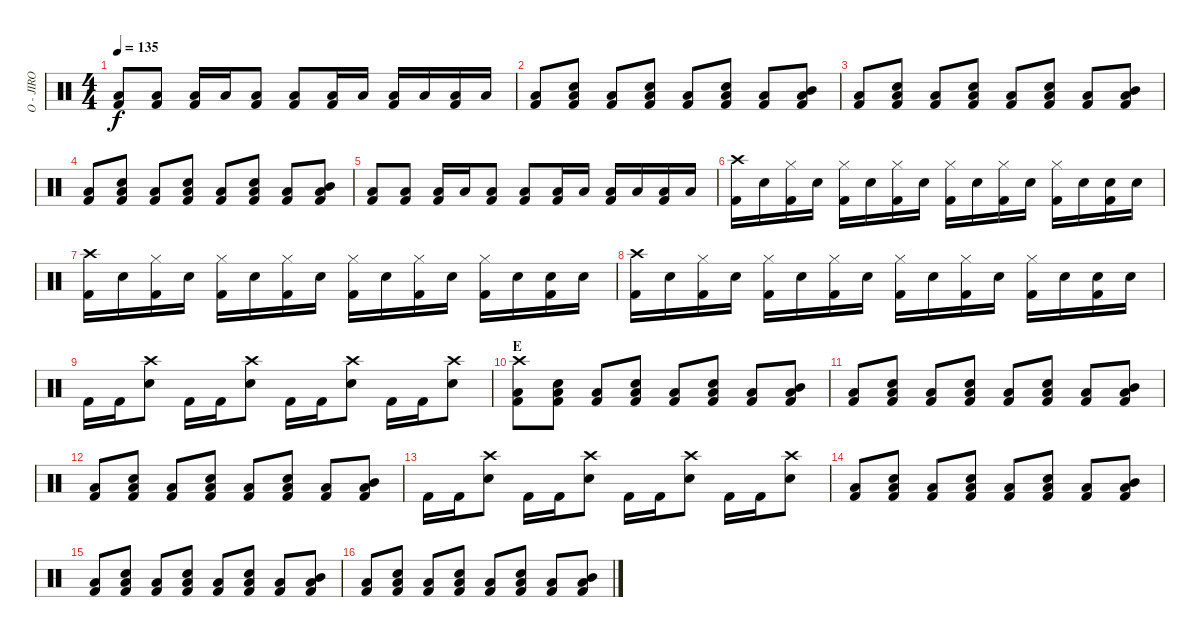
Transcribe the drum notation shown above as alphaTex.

\track ("O - JIRO" "O - JIRO") {instrument percussion}
\staff {score}
\articulation defaults
\ts (4 4)
\tempo 135
\clef neutral
\ks c
("Kick (hit) 2" "Low Floor Tom (hit)").8{dy f} ("Kick (hit) 2" "Low Floor Tom (hit)").8 ("Kick (hit) 2" "Low Floor Tom (hit)").16 "Low Tom (hit)".16 ("Kick (hit) 2" "Low Floor Tom (hit)").8 ("Kick (hit) 2" "Low Floor Tom (hit)").8 ("Kick (hit) 2" "Low Floor Tom (hit)").16 "Low Tom (hit)".16 ("Kick (hit) 2" "Low Floor Tom (hit)").16 "Low Floor Tom (hit)".16 ("Low Tom (hit)" "Kick (hit) 2").16 "Low Tom (hit)".16 |
("Kick (hit) 2" "Low Floor Tom (hit)").8 ("Snare (hit) 2" "Kick (hit) 2" "Low Floor Tom (hit)").8 ("Kick (hit) 2" "Low Floor Tom (hit)").8 ("Snare (hit) 2" "Kick (hit) 2" "Low Floor Tom (hit)").8 ("Kick (hit) 2" "Low Floor Tom (hit)").8 ("Snare (hit) 2" "Kick (hit) 2" "Low Floor Tom (hit)").8 ("Kick (hit) 2" "Low Floor Tom (hit)").8 ("Mid Tom (hit)" "Kick (hit) 2" "Low Floor Tom (hit)").8 |
("Kick (hit) 2" "Low Floor Tom (hit)").8 ("Snare (hit) 2" "Kick (hit) 2" "Low Floor Tom (hit)").8 ("Kick (hit) 2" "Low Floor Tom (hit)").8 ("Snare (hit) 2" "Kick (hit) 2" "Low Floor Tom (hit)").8 ("Kick (hit) 2" "Low Floor Tom (hit)").8 ("Snare (hit) 2" "Kick (hit) 2" "Low Floor Tom (hit)").8 ("Kick (hit) 2" "Low Floor Tom (hit)").8 ("Mid Tom (hit)" "Kick (hit) 2" "Low Floor Tom (hit)").8 |
("Kick (hit) 2" "Low Floor Tom (hit)").8 ("Snare (hit) 2" "Kick (hit) 2" "Low Floor Tom (hit)").8 ("Kick (hit) 2" "Low Floor Tom (hit)").8 ("Snare (hit) 2" "Kick (hit) 2" "Low Floor Tom (hit)").8 ("Kick (hit) 2" "Low Floor Tom (hit)").8 ("Snare (hit) 2" "Kick (hit) 2" "Low Floor Tom (hit)").8 ("Kick (hit) 2" "Low Floor Tom (hit)").8 ("Mid Tom (hit)" "Kick (hit) 2" "Low Floor Tom (hit)").8 |
("Kick (hit) 2" "Low Floor Tom (hit)").8 ("Kick (hit) 2" "Low Floor Tom (hit)").8 ("Kick (hit) 2" "Low Floor Tom (hit)").16 "Low Tom (hit)".16 ("Kick (hit) 2" "Low Floor Tom (hit)").8 ("Kick (hit) 2" "Low Floor Tom (hit)").8 ("Kick (hit) 2" "Low Floor Tom (hit)").16 "Low Tom (hit)".16 ("Kick (hit) 2" "Low Floor Tom (hit)").16 "Low Floor Tom (hit)".16 ("Low Tom (hit)" "Kick (hit) 2").16 "Low Tom (hit)".16 |
("Crash high (hit)" "Kick (hit) 2").16 "Snare (hit) 2".16 ("Hi-Hat (closed)" "Kick (hit) 2").16 "Snare (hit) 2".16 ("Hi-Hat (closed)" "Kick (hit) 2").16 "Snare (hit) 2".16 ("Hi-Hat (closed)" "Kick (hit) 2").16 "Snare (hit) 2".16 ("Hi-Hat (closed)" "Kick (hit) 2").16 "Snare (hit) 2".16 ("Hi-Hat (closed)" "Kick (hit) 2").16 "Snare (hit) 2".16 ("Hi-Hat (closed)" "Kick (hit) 2").16 "Snare (hit) 2".16 ("Snare (hit) 2" "Kick (hit) 2").16 "Snare (hit) 2".16 |
("Crash high (hit)" "Kick (hit) 2").16 "Snare (hit) 2".16 ("Hi-Hat (closed)" "Kick (hit) 2").16 "Snare (hit) 2".16 ("Hi-Hat (closed)" "Kick (hit) 2").16 "Snare (hit) 2".16 ("Hi-Hat (closed)" "Kick (hit) 2").16 "Snare (hit) 2".16 ("Hi-Hat (closed)" "Kick (hit) 2").16 "Snare (hit) 2".16 ("Hi-Hat (closed)" "Kick (hit) 2").16 "Snare (hit) 2".16 ("Hi-Hat (closed)" "Kick (hit) 2").16 "Snare (hit) 2".16 ("Snare (hit) 2" "Kick (hit) 2").16 "Snare (hit) 2".16 |
("Crash high (hit)" "Kick (hit) 2").16 "Snare (hit) 2".16 ("Hi-Hat (closed)" "Kick (hit) 2").16 "Snare (hit) 2".16 ("Hi-Hat (closed)" "Kick (hit) 2").16 "Snare (hit) 2".16 ("Hi-Hat (closed)" "Kick (hit) 2").16 "Snare (hit) 2".16 ("Hi-Hat (closed)" "Kick (hit) 2").16 "Snare (hit) 2".16 ("Hi-Hat (closed)" "Kick (hit) 2").16 "Snare (hit) 2".16 ("Hi-Hat (closed)" "Kick (hit) 2").16 "Snare (hit) 2".16 ("Snare (hit) 2" "Kick (hit) 2").16 "Snare (hit) 2".16 |
"Kick (hit) 2".16 "Kick (hit) 2".16 ("Crash high (hit)" "Snare (hit) 2").8 "Kick (hit) 2".16 "Kick (hit) 2".16 ("Crash high (hit)" "Snare (hit) 2").8 "Kick (hit) 2".16 "Kick (hit) 2".16 ("Crash high (hit)" "Snare (hit) 2").8 "Kick (hit) 2".16 "Kick (hit) 2".16 ("Crash high (hit)" "Snare (hit) 2").8 |
\section ("" "E")
("Crash high (hit)" "Kick (hit) 2" "Low Floor Tom (hit)").8 ("Snare (hit) 2" "Kick (hit) 2" "Low Floor Tom (hit)").8 ("Kick (hit) 2" "Low Floor Tom (hit)").8 ("Snare (hit) 2" "Kick (hit) 2" "Low Floor Tom (hit)").8 ("Kick (hit) 2" "Low Floor Tom (hit)").8 ("Snare (hit) 2" "Kick (hit) 2" "Low Floor Tom (hit)").8 ("Kick (hit) 2" "Low Floor Tom (hit)").8 ("Mid Tom (hit)" "Kick (hit) 2" "Low Floor Tom (hit)").8 |
("Kick (hit) 2" "Low Floor Tom (hit)").8 ("Snare (hit) 2" "Kick (hit) 2" "Low Floor Tom (hit)").8 ("Kick (hit) 2" "Low Floor Tom (hit)").8 ("Snare (hit) 2" "Kick (hit) 2" "Low Floor Tom (hit)").8 ("Kick (hit) 2" "Low Floor Tom (hit)").8 ("Snare (hit) 2" "Kick (hit) 2" "Low Floor Tom (hit)").8 ("Kick (hit) 2" "Low Floor Tom (hit)").8 ("Mid Tom (hit)" "Kick (hit) 2" "Low Floor Tom (hit)").8 |
("Kick (hit) 2" "Low Floor Tom (hit)").8 ("Snare (hit) 2" "Kick (hit) 2" "Low Floor Tom (hit)").8 ("Kick (hit) 2" "Low Floor Tom (hit)").8 ("Snare (hit) 2" "Kick (hit) 2" "Low Floor Tom (hit)").8 ("Kick (hit) 2" "Low Floor Tom (hit)").8 ("Snare (hit) 2" "Kick (hit) 2" "Low Floor Tom (hit)").8 ("Kick (hit) 2" "Low Floor Tom (hit)").8 ("Mid Tom (hit)" "Kick (hit) 2" "Low Floor Tom (hit)").8 |
"Kick (hit) 2".16 "Kick (hit) 2".16 ("Crash high (hit)" "Snare (hit) 2").8 "Kick (hit) 2".16 "Kick (hit) 2".16 ("Crash high (hit)" "Snare (hit) 2").8 "Kick (hit) 2".16 "Kick (hit) 2".16 ("Crash high (hit)" "Snare (hit) 2").8 "Kick (hit) 2".16 "Kick (hit) 2".16 ("Crash high (hit)" "Snare (hit) 2").8 |
("Kick (hit) 2" "Low Floor Tom (hit)").8 ("Snare (hit) 2" "Kick (hit) 2" "Low Floor Tom (hit)").8 ("Kick (hit) 2" "Low Floor Tom (hit)").8 ("Snare (hit) 2" "Kick (hit) 2" "Low Floor Tom (hit)").8 ("Kick (hit) 2" "Low Floor Tom (hit)").8 ("Snare (hit) 2" "Kick (hit) 2" "Low Floor Tom (hit)").8 ("Kick (hit) 2" "Low Floor Tom (hit)").8 ("Mid Tom (hit)" "Kick (hit) 2" "Low Floor Tom (hit)").8 |
("Kick (hit) 2" "Low Floor Tom (hit)").8 ("Snare (hit) 2" "Kick (hit) 2" "Low Floor Tom (hit)").8 ("Kick (hit) 2" "Low Floor Tom (hit)").8 ("Snare (hit) 2" "Kick (hit) 2" "Low Floor Tom (hit)").8 ("Kick (hit) 2" "Low Floor Tom (hit)").8 ("Snare (hit) 2" "Kick (hit) 2" "Low Floor Tom (hit)").8 ("Kick (hit) 2" "Low Floor Tom (hit)").8 ("Mid Tom (hit)" "Kick (hit) 2" "Low Floor Tom (hit)").8 |
("Kick (hit) 2" "Low Floor Tom (hit)").8 ("Snare (hit) 2" "Kick (hit) 2" "Low Floor Tom (hit)").8 ("Kick (hit) 2" "Low Floor Tom (hit)").8 ("Snare (hit) 2" "Kick (hit) 2" "Low Floor Tom (hit)").8 ("Kick (hit) 2" "Low Floor Tom (hit)").8 ("Snare (hit) 2" "Kick (hit) 2" "Low Floor Tom (hit)").8 ("Kick (hit) 2" "Low Floor Tom (hit)").8 ("Mid Tom (hit)" "Kick (hit) 2" "Low Floor Tom (hit)").8
